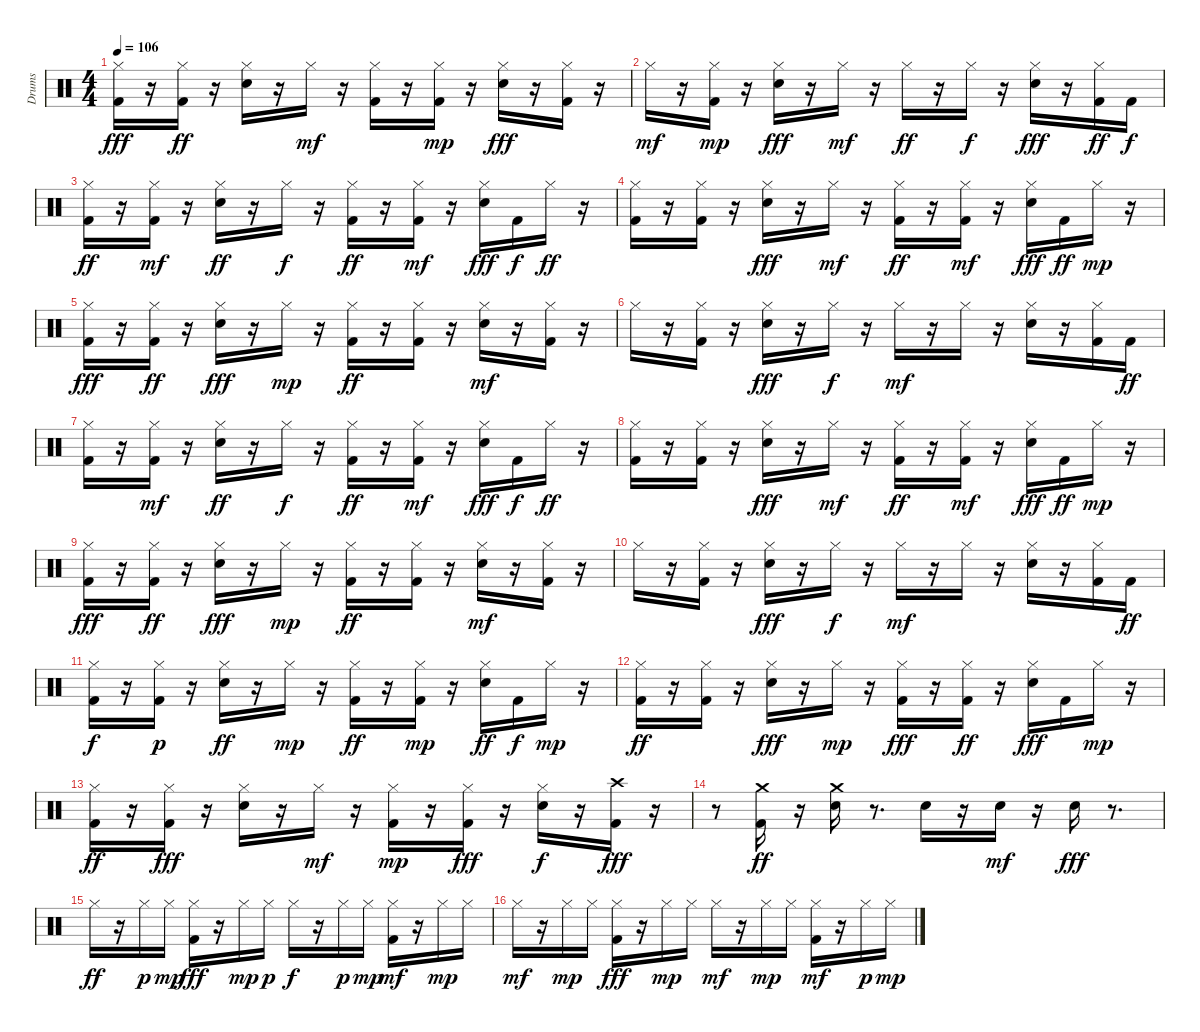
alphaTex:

\track ("Drums" "Drums") {instrument percussion}
\staff {score}
\articulation defaults
\ts (4 4)
\tempo 106
\clef neutral
\ks c
("Kick (hit) 2" "Hi-Hat (closed)").16{dy fff} r.16 ("Hi-Hat (closed)" "Kick (hit) 2").16{dy ff} r.16 ("Snare (hit) 2" "Hi-Hat (closed)").16 r.16 "Hi-Hat (closed)".16{dy mf} r.16 ("Hi-Hat (closed)" "Kick (hit) 2").16 r.16 ("Hi-Hat (closed)" "Kick (hit) 2").16{dy mp} r.16 ("Hi-Hat (closed)" "Snare (hit) 2").16{dy fff} r.16 ("Hi-Hat (closed)" "Kick (hit) 2").16 r.16 |
"Hi-Hat (closed)".16{dy mf} r.16 ("Kick (hit) 2" "Hi-Hat (closed)").16{dy mp} r.16 ("Hi-Hat (closed)" "Snare (hit) 2").16{dy fff} r.16 "Hi-Hat (closed)".16{dy mf} r.16 "Hi-Hat (closed)".16{dy ff} r.16 "Hi-Hat (closed)".16{dy f} r.16 ("Snare (hit) 2" "Hi-Hat (closed)").16{dy fff} r.16 ("Kick (hit) 2" "Hi-Hat (closed)").16{dy ff} "Kick (hit) 2".16{dy f} |
("Hi-Hat (closed)" "Kick (hit) 2").16{dy ff} r.16 ("Kick (hit) 2" "Hi-Hat (closed)").16{dy mf} r.16 ("Hi-Hat (closed)" "Snare (hit) 2").16{dy ff} r.16 "Hi-Hat (closed)".16{dy f} r.16 ("Hi-Hat (closed)" "Kick (hit) 2").16{dy ff} r.16 ("Hi-Hat (closed)" "Kick (hit) 2").16{dy mf} r.16 ("Hi-Hat (closed)" "Snare (hit) 2").16{dy fff} "Kick (hit) 2".16{dy f} "Hi-Hat (closed)".16{dy ff} r.16 |
("Hi-Hat (closed)" "Kick (hit) 2").16 r.16 ("Hi-Hat (closed)" "Kick (hit) 2").16 r.16 ("Hi-Hat (closed)" "Snare (hit) 2").16{dy fff} r.16 "Hi-Hat (closed)".16{dy mf} r.16 ("Hi-Hat (closed)" "Kick (hit) 2").16{dy ff} r.16 ("Hi-Hat (closed)" "Kick (hit) 2").16{dy mf} r.16 ("Hi-Hat (closed)" "Snare (hit) 2").16{dy fff} "Kick (hit) 2".16{dy ff} "Hi-Hat (closed)".16{dy mp} r.16 |
("Hi-Hat (closed)" "Kick (hit) 2").16{dy fff} r.16 ("Hi-Hat (closed)" "Kick (hit) 2").16{dy ff} r.16 ("Snare (hit) 2" "Hi-Hat (closed)").16{dy fff} r.16 "Hi-Hat (closed)".16{dy mp} r.16 ("Hi-Hat (closed)" "Kick (hit) 2").16{dy ff} r.16 ("Hi-Hat (closed)" "Kick (hit) 2").16 r.16 ("Snare (hit) 2" "Hi-Hat (closed)").16{dy mf} r.16 ("Kick (hit) 2" "Hi-Hat (closed)").16 r.16 |
"Hi-Hat (closed)".16 r.16 ("Kick (hit) 2" "Hi-Hat (closed)").16 r.16 ("Hi-Hat (closed)" "Snare (hit) 2").16{dy fff} r.16 "Hi-Hat (closed)".16{dy f} r.16 "Hi-Hat (closed)".16{dy mf} r.16 "Hi-Hat (closed)".16 r.16 ("Snare (hit) 2" "Hi-Hat (closed)").16 r.16 ("Kick (hit) 2" "Hi-Hat (closed)").16 "Kick (hit) 2".16{dy ff} |
("Hi-Hat (closed)" "Kick (hit) 2").16 r.16 ("Kick (hit) 2" "Hi-Hat (closed)").16{dy mf} r.16 ("Hi-Hat (closed)" "Snare (hit) 2").16{dy ff} r.16 "Hi-Hat (closed)".16{dy f} r.16 ("Hi-Hat (closed)" "Kick (hit) 2").16{dy ff} r.16 ("Hi-Hat (closed)" "Kick (hit) 2").16{dy mf} r.16 ("Hi-Hat (closed)" "Snare (hit) 2").16{dy fff} "Kick (hit) 2".16{dy f} "Hi-Hat (closed)".16{dy ff} r.16 |
("Hi-Hat (closed)" "Kick (hit) 2").16 r.16 ("Hi-Hat (closed)" "Kick (hit) 2").16 r.16 ("Hi-Hat (closed)" "Snare (hit) 2").16{dy fff} r.16 "Hi-Hat (closed)".16{dy mf} r.16 ("Hi-Hat (closed)" "Kick (hit) 2").16{dy ff} r.16 ("Hi-Hat (closed)" "Kick (hit) 2").16{dy mf} r.16 ("Hi-Hat (closed)" "Snare (hit) 2").16{dy fff} "Kick (hit) 2".16{dy ff} "Hi-Hat (closed)".16{dy mp} r.16 |
("Hi-Hat (closed)" "Kick (hit) 2").16{dy fff} r.16 ("Hi-Hat (closed)" "Kick (hit) 2").16{dy ff} r.16 ("Snare (hit) 2" "Hi-Hat (closed)").16{dy fff} r.16 "Hi-Hat (closed)".16{dy mp} r.16 ("Hi-Hat (closed)" "Kick (hit) 2").16{dy ff} r.16 ("Hi-Hat (closed)" "Kick (hit) 2").16 r.16 ("Snare (hit) 2" "Hi-Hat (closed)").16{dy mf} r.16 ("Kick (hit) 2" "Hi-Hat (closed)").16 r.16 |
"Hi-Hat (closed)".16 r.16 ("Kick (hit) 2" "Hi-Hat (closed)").16 r.16 ("Hi-Hat (closed)" "Snare (hit) 2").16{dy fff} r.16 "Hi-Hat (closed)".16{dy f} r.16 "Hi-Hat (closed)".16{dy mf} r.16 "Hi-Hat (closed)".16 r.16 ("Snare (hit) 2" "Hi-Hat (closed)").16 r.16 ("Kick (hit) 2" "Hi-Hat (closed)").16 "Kick (hit) 2".16{dy ff} |
("Kick (hit) 2" "Hi-Hat (closed)").16{dy f} r.16 ("Kick (hit) 2" "Hi-Hat (closed)").16{dy p} r.16 ("Hi-Hat (closed)" "Snare (hit) 2").16{dy ff} r.16 "Hi-Hat (closed)".16{dy mp} r.16 ("Hi-Hat (closed)" "Kick (hit) 2").16{dy ff} r.16 ("Kick (hit) 2" "Hi-Hat (closed)").16{dy mp} r.16 ("Snare (hit) 2" "Hi-Hat (closed)").16{dy ff} "Kick (hit) 2".16{dy f} "Hi-Hat (closed)".16{dy mp} r.16 |
("Hi-Hat (closed)" "Kick (hit) 2").16{dy ff} r.16 ("Hi-Hat (closed)" "Kick (hit) 2").16 r.16 ("Hi-Hat (closed)" "Snare (hit) 2").16{dy fff} r.16 "Hi-Hat (closed)".16{dy mp} r.16 ("Hi-Hat (closed)" "Kick (hit) 2").16{dy fff} r.16 ("Hi-Hat (closed)" "Kick (hit) 2").16{dy ff} r.16 ("Snare (hit) 2" "Hi-Hat (closed)").16{dy fff} "Kick (hit) 2".16 "Hi-Hat (closed)".16{dy mp} r.16 |
("Hi-Hat (closed)" "Kick (hit) 2").16{dy ff} r.16 ("Hi-Hat (closed)" "Kick (hit) 2").16{dy fff} r.16 ("Hi-Hat (closed)" "Snare (hit) 2").16 r.16 "Hi-Hat (closed)".16{dy mf} r.16 ("Kick (hit) 2" "Hi-Hat (closed)").16{dy mp} r.16 ("Hi-Hat (closed)" "Kick (hit) 2").16{dy fff} r.16 ("Snare (hit) 2" "Hi-Hat (closed)").16{dy f} r.16 ("Crash high (hit)" "Kick (hit) 2").16{dy fff} r.16 |
r.8 ("Kick (hit) 2" "Crash medium (hit)").16{dy ff} r.16 ("Snare (hit) 2" "Crash medium (hit)").16 r.8{d} "Snare (hit) 2".16 r.16 "Snare (hit) 2".16{dy mf} r.16 "Snare (hit) 2".16{dy fff} r.8{d} |
"Hi-Hat (closed)".16{dy ff} r.16 "Hi-Hat (closed)".16{dy p} "Hi-Hat (closed)".16{dy mp} ("Hi-Hat (closed)" "Kick (hit) 2").16{dy fff} r.16 "Hi-Hat (closed)".16{dy mp} "Hi-Hat (closed)".16{dy p} "Hi-Hat (closed)".16{dy f} r.16 "Hi-Hat (closed)".16{dy p} "Hi-Hat (closed)".16{dy mp} ("Kick (hit) 2" "Hi-Hat (closed)").16{dy mf} r.16 "Hi-Hat (closed)".16{dy mp} "Hi-Hat (closed)".16 |
"Hi-Hat (closed)".16{dy mf} r.16 "Hi-Hat (closed)".16{dy mp} "Hi-Hat (closed)".16 ("Kick (hit) 2" "Hi-Hat (closed)").16{dy fff} r.16 "Hi-Hat (closed)".16{dy mp} "Hi-Hat (closed)".16 "Hi-Hat (closed)".16{dy mf} r.16 "Hi-Hat (closed)".16{dy mp} "Hi-Hat (closed)".16 ("Kick (hit) 2" "Hi-Hat (closed)").16{dy mf} r.16 "Hi-Hat (closed)".16{dy p} "Hi-Hat (closed)".16{dy mp}
